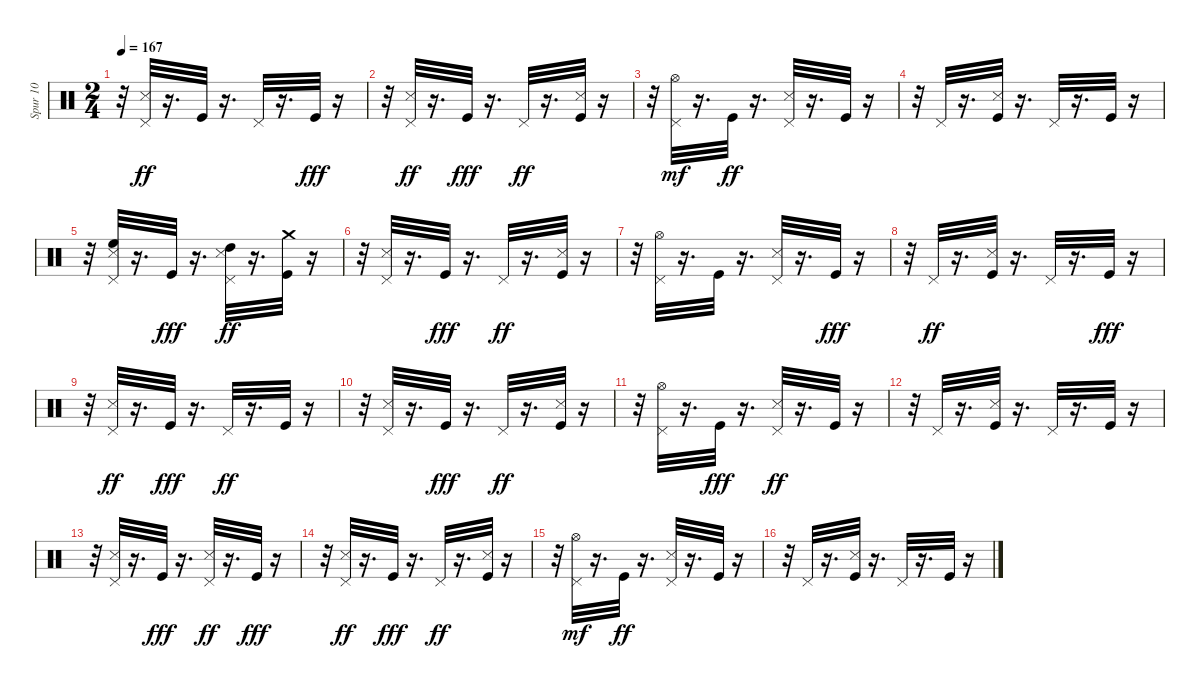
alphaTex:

\track ("Spur 10" "Spur 10") {instrument percussion}
\staff {score}
\articulation defaults
\ts (2 4)
\tempo 167
\clef neutral
\ks c
r.32{dy ff} ("Pedal Hi-Hat (hit)" "Snare (side stick) 3").32 r.16{d} "Kick (hit)".32 r.16{d} "Pedal Hi-Hat (hit)".32 r.16{d} "Kick (hit)".32{dy fff} r.16 |
r.32 ("Snare (side stick) 3" "Pedal Hi-Hat (hit)").32{dy ff} r.16{d} "Kick (hit)".32{dy fff} r.16{d} "Pedal Hi-Hat (hit)".32{dy ff} r.16{d} ("Kick (hit)" "Snare (side stick) 3").32 r.16 |
r.32 ("Pedal Hi-Hat (hit)" "Hi-Hat (open)").32{dy mf} r.16{d} "Kick (hit)".32{dy ff} r.16{d} ("Pedal Hi-Hat (hit)" "Snare (side stick) 3").32 r.16{d} "Kick (hit)".32 r.16 |
r.32 "Pedal Hi-Hat (hit)".32 r.16{d} ("Kick (hit)" "Snare (side stick) 3").32 r.16{d} "Pedal Hi-Hat (hit)".32 r.16{d} "Kick (hit)".32 r.16 |
r.32 ("High Floor Tom (hit)" "Pedal Hi-Hat (hit)" "Snare (side stick) 3").32 r.16{d} "Kick (hit)".32{dy fff} r.16{d} ("High Tom (hit)" "Pedal Hi-Hat (hit)" "Snare (side stick) 3").32{dy ff} r.16{d} ("Kick (hit)" "Crash medium (hit)").32 r.16 |
r.32 ("Pedal Hi-Hat (hit)" "Snare (side stick) 3").32 r.16{d} "Kick (hit)".32{dy fff} r.16{d} "Pedal Hi-Hat (hit)".32{dy ff} r.16{d} ("Kick (hit)" "Snare (side stick) 3").32 r.16 |
r.32 ("Hi-Hat (open)" "Pedal Hi-Hat (hit)").32 r.16{d} "Kick (hit)".32 r.16{d} ("Snare (side stick) 3" "Pedal Hi-Hat (hit)").32 r.16{d} "Kick (hit)".32{dy fff} r.16 |
r.32 "Pedal Hi-Hat (hit)".32{dy ff} r.16{d} ("Kick (hit)" "Snare (side stick) 3").32 r.16{d} "Pedal Hi-Hat (hit)".32 r.16{d} "Kick (hit)".32{dy fff} r.16 |
r.32 ("Snare (side stick) 3" "Pedal Hi-Hat (hit)").32{dy ff} r.16{d} "Kick (hit)".32{dy fff} r.16{d} "Pedal Hi-Hat (hit)".32{dy ff} r.16{d} "Kick (hit)".32 r.16 |
r.32 ("Snare (side stick) 3" "Pedal Hi-Hat (hit)").32 r.16{d} "Kick (hit)".32{dy fff} r.16{d} "Pedal Hi-Hat (hit)".32{dy ff} r.16{d} ("Kick (hit)" "Snare (side stick) 3").32 r.16 |
r.32 ("Hi-Hat (open)" "Pedal Hi-Hat (hit)").32 r.16{d} "Kick (hit)".32{dy fff} r.16{d} ("Snare (side stick) 3" "Pedal Hi-Hat (hit)").32{dy ff} r.16{d} "Kick (hit)".32 r.16 |
r.32 "Pedal Hi-Hat (hit)".32 r.16{d} ("Snare (side stick) 3" "Kick (hit)").32 r.16{d} "Pedal Hi-Hat (hit)".32 r.16{d} "Kick (hit)".32 r.16 |
r.32 ("Pedal Hi-Hat (hit)" "Snare (side stick) 3").32 r.16{d} "Kick (hit)".32{dy fff} r.16{d} ("Pedal Hi-Hat (hit)" "Snare (side stick) 3").32{dy ff} r.16{d} "Kick (hit)".32{dy fff} r.16 |
r.32 ("Snare (side stick) 3" "Pedal Hi-Hat (hit)").32{dy ff} r.16{d} "Kick (hit)".32{dy fff} r.16{d} "Pedal Hi-Hat (hit)".32{dy ff} r.16{d} ("Kick (hit)" "Snare (side stick) 3").32 r.16 |
r.32 ("Pedal Hi-Hat (hit)" "Hi-Hat (open)").32{dy mf} r.16{d} "Kick (hit)".32{dy ff} r.16{d} ("Snare (side stick) 3" "Pedal Hi-Hat (hit)").32 r.16{d} "Kick (hit)".32 r.16 |
r.32 "Pedal Hi-Hat (hit)".32 r.16{d} ("Snare (side stick) 3" "Kick (hit)").32 r.16{d} "Pedal Hi-Hat (hit)".32 r.16{d} "Kick (hit)".32 r.16
